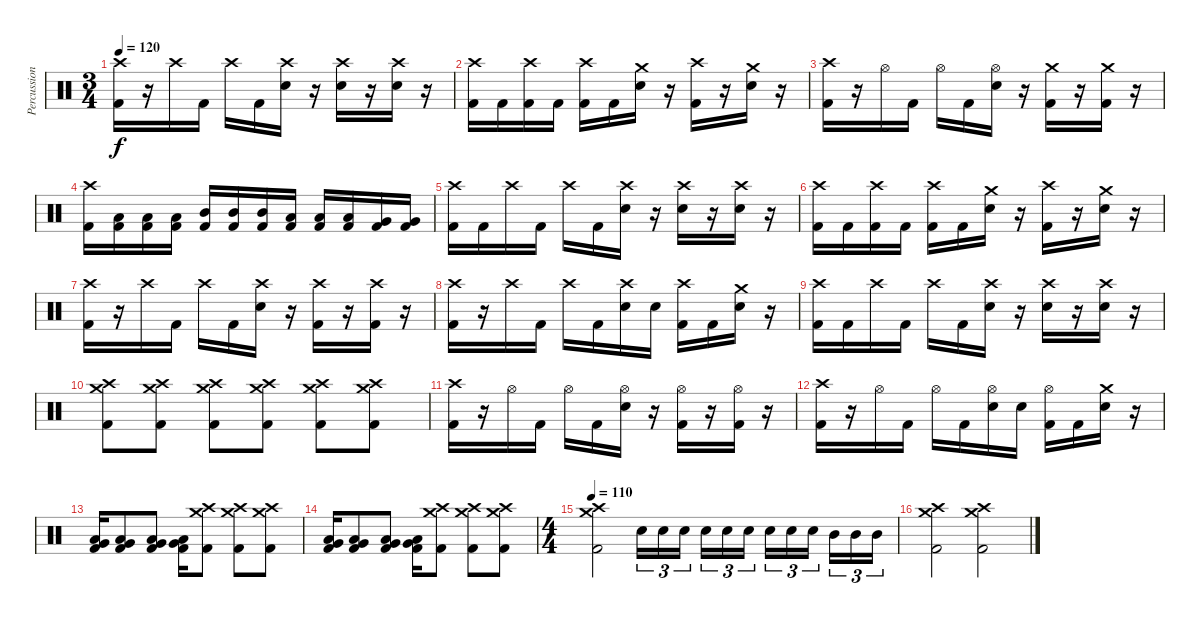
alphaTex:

\track ("Percussion" "Percussion") {instrument percussion}
\staff {score}
\articulation defaults
\ts (3 4)
\tempo 120
\clef neutral
\ks c
("Crash high (hit)" "Kick (hit) 2").16{dy f} r.16 "Crash high (hit)".16 "Kick (hit) 2".16 "Crash high (hit)".16 "Kick (hit) 2".16 ("Crash high (hit)" "Electric Snare (hit)").16 r.16 ("Crash high (hit)" "Electric Snare (hit)").16 r.16 ("Crash high (hit)" "Electric Snare (hit)").16 r.16 |
("Crash high (hit)" "Kick (hit) 2").16 "Kick (hit) 2".16 ("Crash high (hit)" "Kick (hit) 2").16 "Kick (hit) 2".16 ("Crash high (hit)" "Kick (hit) 2").16 "Kick (hit) 2".16 ("Crash medium (hit)" "Electric Snare (hit)").16 r.16 ("Crash high (hit)" "Kick (hit) 2").16 r.16 ("Crash medium (hit)" "Electric Snare (hit)").16 r.16 |
("Crash high (hit)" "Kick (hit) 2").16 r.16 "Hi-Hat (open)".16 "Kick (hit) 2".16 "Hi-Hat (open)".16 "Kick (hit) 2".16 ("Hi-Hat (open)" "Electric Snare (hit)").16 r.16 ("Crash medium (hit)" "Kick (hit) 2").16 r.16 ("Crash medium (hit)" "Kick (hit) 2").16 r.16 |
("Crash high (hit)" "Kick (hit) 2").16 ("Low Tom (hit)" "Kick (hit) 2").16 ("Low Tom (hit)" "Kick (hit) 2").16 ("Low Tom (hit)" "Kick (hit) 2").16 ("Mid Tom (hit)" "Kick (hit) 2").16 ("Mid Tom (hit)" "Kick (hit) 2").16 ("Mid Tom (hit)" "Kick (hit) 2").16 ("Low Tom (hit)" "Kick (hit) 2").16 ("Low Tom (hit)" "Kick (hit) 2").16 ("Low Tom (hit)" "Kick (hit) 2").16 ("Very Low Tom (hit)" "Kick (hit) 2").16 ("Very Low Tom (hit)" "Kick (hit) 2").16 |
("Crash high (hit)" "Kick (hit) 2").16 "Kick (hit) 2".16 "Crash high (hit)".16 "Kick (hit) 2".16 "Crash high (hit)".16 "Kick (hit) 2".16 ("Crash high (hit)" "Electric Snare (hit)").16 r.16 ("Crash high (hit)" "Electric Snare (hit)").16 r.16 ("Crash high (hit)" "Electric Snare (hit)").16 r.16 |
("Crash high (hit)" "Kick (hit) 2").16 "Kick (hit) 2".16 ("Crash high (hit)" "Kick (hit) 2").16 "Kick (hit) 2".16 ("Crash high (hit)" "Kick (hit) 2").16 "Kick (hit) 2".16 ("Crash medium (hit)" "Electric Snare (hit)").16 r.16 ("Crash high (hit)" "Kick (hit) 2").16 r.16 ("Crash medium (hit)" "Electric Snare (hit)").16 r.16 |
("Crash high (hit)" "Kick (hit) 2").16 r.16 "Crash high (hit)".16 "Kick (hit) 2".16 "Crash high (hit)".16 "Kick (hit) 2".16 ("Crash high (hit)" "Electric Snare (hit)").16 r.16 ("Crash high (hit)" "Kick (hit) 2").16 r.16 ("Crash high (hit)" "Kick (hit) 2").16 r.16 |
("Crash high (hit)" "Kick (hit) 2").16 r.16 "Crash high (hit)".16 "Kick (hit) 2".16 "Crash high (hit)".16 "Kick (hit) 2".16 ("Crash high (hit)" "Electric Snare (hit)").16 "Electric Snare (hit)".16 ("Crash high (hit)" "Kick (hit) 2").16 "Kick (hit) 2".16 ("Crash medium (hit)" "Electric Snare (hit)").16 r.16 |
("Crash high (hit)" "Kick (hit) 2").16 "Kick (hit) 2".16 "Crash high (hit)".16 "Kick (hit) 2".16 "Crash high (hit)".16 "Kick (hit) 2".16 ("Crash high (hit)" "Electric Snare (hit)").16 r.16 ("Crash high (hit)" "Electric Snare (hit)").16 r.16 ("Crash high (hit)" "Electric Snare (hit)").16 r.16 |
("Crash high (hit)" "Crash medium (hit)" "Kick (hit) 2").8 ("Crash high (hit)" "Crash medium (hit)" "Kick (hit) 2").8 ("Crash high (hit)" "Crash medium (hit)" "Kick (hit) 2").8 ("Crash high (hit)" "Crash medium (hit)" "Kick (hit) 2").8 ("Crash high (hit)" "Crash medium (hit)" "Kick (hit) 2").8 ("Crash high (hit)" "Crash medium (hit)" "Kick (hit) 2").8 |
("Crash high (hit)" "Kick (hit) 2").16 r.16 "Hi-Hat (open)".16 "Kick (hit) 2".16 "Hi-Hat (open)".16 "Kick (hit) 2".16 ("Hi-Hat (open)" "Electric Snare (hit)").16 r.16 ("Hi-Hat (open)" "Kick (hit) 2").16 r.16 ("Hi-Hat (open)" "Kick (hit) 2").16 r.16 |
("Crash high (hit)" "Kick (hit) 2").16 r.16 "Hi-Hat (open)".16 "Kick (hit) 2".16 "Hi-Hat (open)".16 "Kick (hit) 2".16 ("Hi-Hat (open)" "Electric Snare (hit)").16 "Electric Snare (hit)".16 ("Hi-Hat (open)" "Kick (hit) 2").16 "Kick (hit) 2".16 ("Crash medium (hit)" "Electric Snare (hit)").16 r.16 |
("Very Low Tom (hit)" "Low Floor Tom (hit)" "Kick (hit) 2").16 ("Very Low Tom (hit)" "Low Floor Tom (hit)" "Kick (hit) 2").8 ("Very Low Tom (hit)" "Low Floor Tom (hit)" "Kick (hit) 2").8 ("Very Low Tom (hit)" "Low Floor Tom (hit)" "Kick (hit) 2").16 ("Crash medium (hit)" "Crash high (hit)" "Kick (hit) 2").8 ("Crash medium (hit)" "Crash high (hit)" "Kick (hit) 2").8 ("Crash medium (hit)" "Crash high (hit)" "Kick (hit) 2").8 |
("Very Low Tom (hit)" "Low Floor Tom (hit)" "Kick (hit) 2").16 ("Very Low Tom (hit)" "Low Floor Tom (hit)" "Kick (hit) 2").8 ("Very Low Tom (hit)" "Low Floor Tom (hit)" "Kick (hit) 2").8 ("Very Low Tom (hit)" "Low Floor Tom (hit)" "Kick (hit) 2").16 ("Crash medium (hit)" "Crash high (hit)" "Kick (hit) 2").8 ("Crash medium (hit)" "Crash high (hit)" "Kick (hit) 2").8 ("Crash medium (hit)" "Crash high (hit)" "Kick (hit) 2").8 |
\ts (4 4)
\tempo 110
("Crash high (hit)" "Crash medium (hit)" "Kick (hit) 2").2 "Electric Snare (hit)".16{tu (3 2)} "Electric Snare (hit)".16{tu (3 2)} "Electric Snare (hit)".16{tu (3 2)} "Electric Snare (hit)".16{tu (3 2)} "Electric Snare (hit)".16{tu (3 2)} "Electric Snare (hit)".16{tu (3 2)} "Electric Snare (hit)".16{tu (3 2)} "Electric Snare (hit)".16{tu (3 2)} "Electric Snare (hit)".16{tu (3 2)} "Mid Tom (hit)".16{tu (3 2)} "Mid Tom (hit)".16{tu (3 2)} "Mid Tom (hit)".16{tu (3 2)} |
("Crash medium (hit)" "Crash high (hit)" "Kick (hit) 2").2 ("Crash medium (hit)" "Crash high (hit)" "Kick (hit) 2").2
